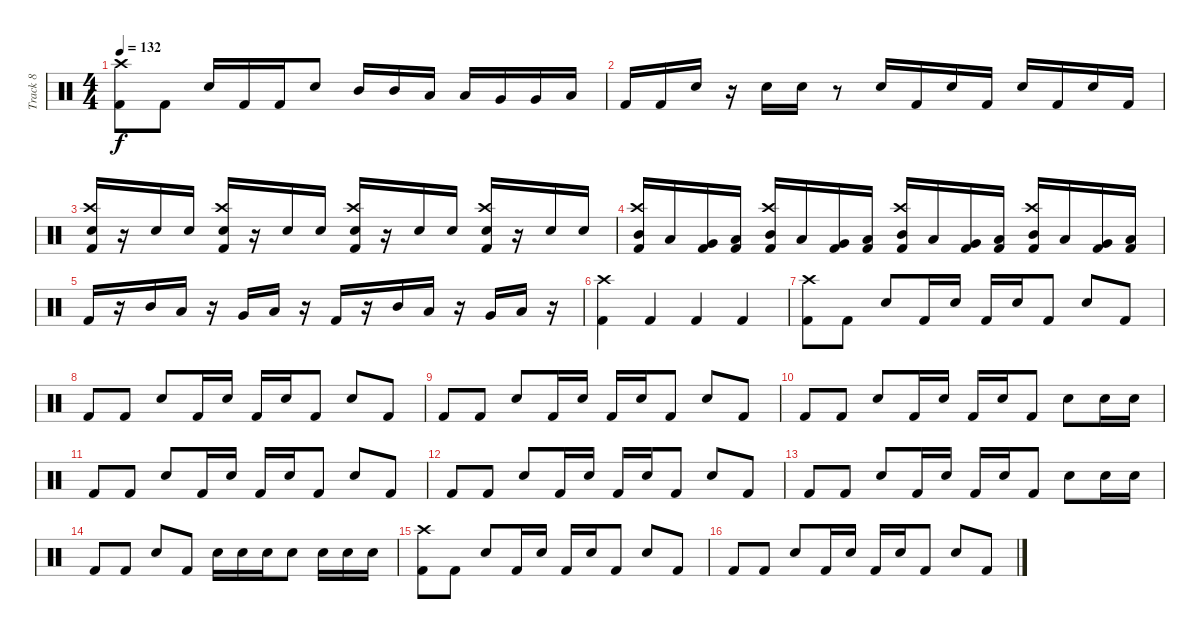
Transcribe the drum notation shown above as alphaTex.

\track ("Track 8" "Track 8") {instrument percussion}
\staff {score}
\articulation defaults
\ts (4 4)
\tempo 132
\clef neutral
\ks c
("Kick (hit) 2" "Crash high (hit)").8{dy f} "Kick (hit) 2".8 "Snare (hit) 2".16 "Kick (hit) 2".16 "Kick (hit) 2".16 "Snare (hit) 2".8 "Mid Tom (hit)".16 "Mid Tom (hit)".16 "Low Tom (hit)".16 "Low Tom (hit)".16 "Very Low Tom (hit)".16 "Very Low Tom (hit)".16 "Low Floor Tom (hit)".16 |
"Kick (hit) 2".16 "Kick (hit) 2".16 "Snare (hit) 2".16 r.16 "Snare (hit) 2".16 "Snare (hit) 2".16 r.8 "Snare (hit) 2".16 "Kick (hit) 2".16 "Snare (hit) 2".16 "Kick (hit) 2".16 "Snare (hit) 2".16 "Kick (hit) 2".16 "Snare (hit) 2".16 "Kick (hit) 2".16 |
("Kick (hit) 2" "Snare (hit) 2" "Crash high (hit)").16 r.16 "Snare (hit) 2".16 "Snare (hit) 2".16 ("Kick (hit) 2" "Snare (hit) 2" "Crash high (hit)").16 r.16 "Snare (hit) 2".16 "Snare (hit) 2".16 ("Kick (hit) 2" "Snare (hit) 2" "Crash high (hit)").16 r.16 "Snare (hit) 2".16 "Snare (hit) 2".16 ("Kick (hit) 2" "Snare (hit) 2" "Crash high (hit)").16 r.16 "Snare (hit) 2".16 "Snare (hit) 2".16 |
("Kick (hit) 2" "Mid Tom (hit)" "Crash high (hit)").16 "Low Tom (hit)".16 ("Kick (hit) 2" "Very Low Tom (hit)").16 ("Kick (hit) 2" "Low Floor Tom (hit)").16 ("Kick (hit) 2" "Mid Tom (hit)" "Crash high (hit)").16 "Low Tom (hit)".16 ("Kick (hit) 2" "Very Low Tom (hit)").16 ("Kick (hit) 2" "Low Floor Tom (hit)").16 ("Kick (hit) 2" "Mid Tom (hit)" "Crash high (hit)").16 "Low Tom (hit)".16 ("Kick (hit) 2" "Very Low Tom (hit)").16 ("Kick (hit) 2" "Low Floor Tom (hit)").16 ("Kick (hit) 2" "Mid Tom (hit)" "Crash high (hit)").16 "Low Tom (hit)".16 ("Kick (hit) 2" "Very Low Tom (hit)").16 ("Kick (hit) 2" "Low Floor Tom (hit)").16 |
"Kick (hit) 2".16 r.16 "Mid Tom (hit)".16 "Low Tom (hit)".16 r.16 "Very Low Tom (hit)".16 "Low Floor Tom (hit)".16 r.16 "Kick (hit) 2".16 r.16 "Mid Tom (hit)".16 "Low Tom (hit)".16 r.16 "Very Low Tom (hit)".16 "Low Floor Tom (hit)".16 r.16 |
("Kick (hit) 2" "Crash high (hit)").4 "Kick (hit) 2".4 "Kick (hit) 2".4 "Kick (hit) 2".4 |
("Kick (hit) 2" "Crash high (hit)").8 "Kick (hit) 2".8 "Snare (hit) 2".8 "Kick (hit) 2".16 "Snare (hit) 2".16 "Kick (hit) 2".16 "Snare (hit) 2".16 "Kick (hit) 2".8 "Snare (hit) 2".8 "Kick (hit) 2".8 |
"Kick (hit) 2".8 "Kick (hit) 2".8 "Snare (hit) 2".8 "Kick (hit) 2".16 "Snare (hit) 2".16 "Kick (hit) 2".16 "Snare (hit) 2".16 "Kick (hit) 2".8 "Snare (hit) 2".8 "Kick (hit) 2".8 |
"Kick (hit) 2".8 "Kick (hit) 2".8 "Snare (hit) 2".8 "Kick (hit) 2".16 "Snare (hit) 2".16 "Kick (hit) 2".16 "Snare (hit) 2".16 "Kick (hit) 2".8 "Snare (hit) 2".8 "Kick (hit) 2".8 |
"Kick (hit) 2".8 "Kick (hit) 2".8 "Snare (hit) 2".8 "Kick (hit) 2".16 "Snare (hit) 2".16 "Kick (hit) 2".16 "Snare (hit) 2".16 "Kick (hit) 2".8 "Snare (hit) 2".8 "Snare (hit) 2".16 "Snare (hit) 2".16 |
"Kick (hit) 2".8 "Kick (hit) 2".8 "Snare (hit) 2".8 "Kick (hit) 2".16 "Snare (hit) 2".16 "Kick (hit) 2".16 "Snare (hit) 2".16 "Kick (hit) 2".8 "Snare (hit) 2".8 "Kick (hit) 2".8 |
"Kick (hit) 2".8 "Kick (hit) 2".8 "Snare (hit) 2".8 "Kick (hit) 2".16 "Snare (hit) 2".16 "Kick (hit) 2".16 "Snare (hit) 2".16 "Kick (hit) 2".8 "Snare (hit) 2".8 "Kick (hit) 2".8 |
"Kick (hit) 2".8 "Kick (hit) 2".8 "Snare (hit) 2".8 "Kick (hit) 2".16 "Snare (hit) 2".16 "Kick (hit) 2".16 "Snare (hit) 2".16 "Kick (hit) 2".8 "Snare (hit) 2".8 "Snare (hit) 2".16 "Snare (hit) 2".16 |
"Kick (hit) 2".8 "Kick (hit) 2".8 "Snare (hit) 2".8 "Kick (hit) 2".8 "Snare (hit) 2".16 "Snare (hit) 2".16 "Snare (hit) 2".16 "Snare (hit) 2".8 "Snare (hit) 2".16 "Snare (hit) 2".16 "Snare (hit) 2".16 |
("Kick (hit) 2" "Crash high (hit)").8 "Kick (hit) 2".8 "Snare (hit) 2".8 "Kick (hit) 2".16 "Snare (hit) 2".16 "Kick (hit) 2".16 "Snare (hit) 2".16 "Kick (hit) 2".8 "Snare (hit) 2".8 "Kick (hit) 2".8 |
"Kick (hit) 2".8 "Kick (hit) 2".8 "Snare (hit) 2".8 "Kick (hit) 2".16 "Snare (hit) 2".16 "Kick (hit) 2".16 "Snare (hit) 2".16 "Kick (hit) 2".8 "Snare (hit) 2".8 "Kick (hit) 2".8
